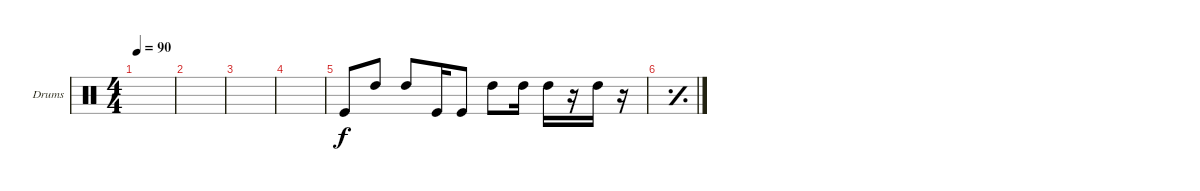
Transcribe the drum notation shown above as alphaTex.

\bracketExtendMode groupsimilarinstruments
\firstSystemTrackNameOrientation horizontal
\otherSystemsTrackNameOrientation horizontal
\track ("Drumkit" "Drums") {instrument percussion}
\staff {score}
\articulation defaults
\ts (4 4)
\tempo 90
\clef neutral
\scale
0.472222
\ks c
|
\scale
0.263889 |
\scale
0.263889 |
\scale
0.333333 |
"Kick (hit)".8 "High Tom (hit)".8 "High Tom (hit)".8 "Kick (hit)".16 "Kick (hit)".8 "High Tom (hit)".8 "High Tom (hit)".16 "High Tom (hit)".16 r.16 "High Tom (hit)".16 r.16 |
\simile simple
|
|
|
|
|
\scale
0.333333 |
\scale
0.333333 |
|
|
|
\scale
0.333333
